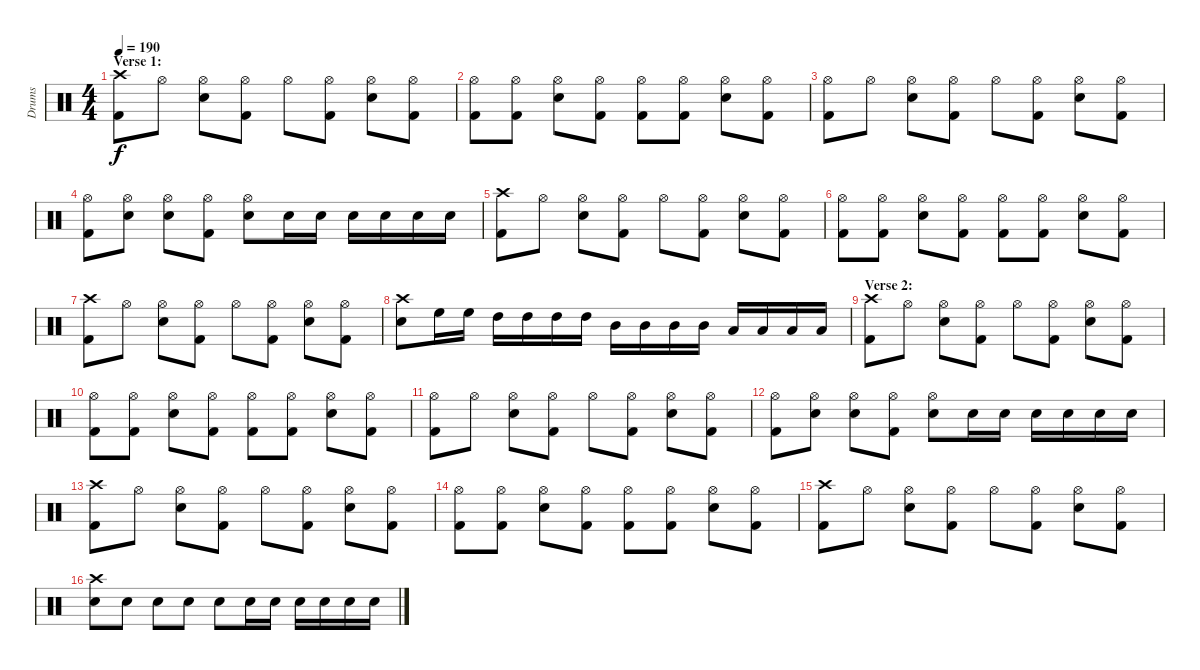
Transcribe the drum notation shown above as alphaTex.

\track ("Drums" "Drums") {instrument percussion}
\staff {score}
\articulation defaults
\ts (4 4)
\section ("" "Verse 1:")
\tempo 190
\clef neutral
\ks c
("Crash high (hit)" "Kick (hit) 2").8{dy f} "Hi-Hat (open)".8 ("Hi-Hat (open)" "Electric Snare (hit)").8 ("Hi-Hat (open)" "Kick (hit) 2").8 "Hi-Hat (open)".8 ("Hi-Hat (open)" "Kick (hit) 2").8 ("Hi-Hat (open)" "Electric Snare (hit)").8 ("Hi-Hat (open)" "Kick (hit) 2").8 |
("Hi-Hat (open)" "Kick (hit) 2").8 ("Hi-Hat (open)" "Kick (hit) 2").8 ("Hi-Hat (open)" "Electric Snare (hit)").8 ("Hi-Hat (open)" "Kick (hit) 2").8 ("Hi-Hat (open)" "Kick (hit) 2").8 ("Hi-Hat (open)" "Kick (hit) 2").8 ("Hi-Hat (open)" "Electric Snare (hit)").8 ("Hi-Hat (open)" "Kick (hit) 2").8 |
("Hi-Hat (open)" "Kick (hit) 2").8 "Hi-Hat (open)".8 ("Hi-Hat (open)" "Electric Snare (hit)").8 ("Hi-Hat (open)" "Kick (hit) 2").8 "Hi-Hat (open)".8 ("Hi-Hat (open)" "Kick (hit) 2").8 ("Hi-Hat (open)" "Electric Snare (hit)").8 ("Hi-Hat (open)" "Kick (hit) 2").8 |
("Hi-Hat (open)" "Kick (hit) 2").8 ("Hi-Hat (open)" "Electric Snare (hit)").8 ("Hi-Hat (open)" "Electric Snare (hit)").8 ("Hi-Hat (open)" "Kick (hit) 2").8 ("Hi-Hat (open)" "Electric Snare (hit)").8 "Electric Snare (hit)".16 "Electric Snare (hit)".16 "Electric Snare (hit)".16 "Electric Snare (hit)".16 "Electric Snare (hit)".16 "Electric Snare (hit)".16 |
("Crash high (hit)" "Kick (hit) 2").8 "Hi-Hat (open)".8 ("Hi-Hat (open)" "Electric Snare (hit)").8 ("Hi-Hat (open)" "Kick (hit) 2").8 "Hi-Hat (open)".8 ("Hi-Hat (open)" "Kick (hit) 2").8 ("Hi-Hat (open)" "Electric Snare (hit)").8 ("Hi-Hat (open)" "Kick (hit) 2").8 |
("Hi-Hat (open)" "Kick (hit) 2").8 ("Hi-Hat (open)" "Kick (hit) 2").8 ("Hi-Hat (open)" "Electric Snare (hit)").8 ("Hi-Hat (open)" "Kick (hit) 2").8 ("Hi-Hat (open)" "Kick (hit) 2").8 ("Hi-Hat (open)" "Kick (hit) 2").8 ("Hi-Hat (open)" "Electric Snare (hit)").8 ("Hi-Hat (open)" "Kick (hit) 2").8 |
("Crash high (hit)" "Kick (hit) 2").8 "Hi-Hat (open)".8 ("Hi-Hat (open)" "Electric Snare (hit)").8 ("Hi-Hat (open)" "Kick (hit) 2").8 "Hi-Hat (open)".8 ("Hi-Hat (open)" "Kick (hit) 2").8 ("Hi-Hat (open)" "Electric Snare (hit)").8 ("Hi-Hat (open)" "Kick (hit) 2").8 |
("Crash high (hit)" "Electric Snare (hit)").8 "High Floor Tom (hit)".16 "High Floor Tom (hit)".16 "High Tom (hit)".16 "High Tom (hit)".16 "High Tom (hit)".16 "High Tom (hit)".16 "Mid Tom (hit)".16 "Mid Tom (hit)".16 "Mid Tom (hit)".16 "Mid Tom (hit)".16 "Low Tom (hit)".16 "Low Tom (hit)".16 "Low Tom (hit)".16 "Low Tom (hit)".16 |
\section ("" "Verse 2:")
("Crash high (hit)" "Kick (hit) 2").8 "Hi-Hat (open)".8 ("Hi-Hat (open)" "Electric Snare (hit)").8 ("Hi-Hat (open)" "Kick (hit) 2").8 "Hi-Hat (open)".8 ("Hi-Hat (open)" "Kick (hit) 2").8 ("Hi-Hat (open)" "Electric Snare (hit)").8 ("Hi-Hat (open)" "Kick (hit) 2").8 |
("Hi-Hat (open)" "Kick (hit) 2").8 ("Hi-Hat (open)" "Kick (hit) 2").8 ("Hi-Hat (open)" "Electric Snare (hit)").8 ("Hi-Hat (open)" "Kick (hit) 2").8 ("Hi-Hat (open)" "Kick (hit) 2").8 ("Hi-Hat (open)" "Kick (hit) 2").8 ("Hi-Hat (open)" "Electric Snare (hit)").8 ("Hi-Hat (open)" "Kick (hit) 2").8 |
("Hi-Hat (open)" "Kick (hit) 2").8 "Hi-Hat (open)".8 ("Hi-Hat (open)" "Electric Snare (hit)").8 ("Hi-Hat (open)" "Kick (hit) 2").8 "Hi-Hat (open)".8 ("Hi-Hat (open)" "Kick (hit) 2").8 ("Hi-Hat (open)" "Electric Snare (hit)").8 ("Hi-Hat (open)" "Kick (hit) 2").8 |
("Hi-Hat (open)" "Kick (hit) 2").8 ("Hi-Hat (open)" "Electric Snare (hit)").8 ("Hi-Hat (open)" "Electric Snare (hit)").8 ("Hi-Hat (open)" "Kick (hit) 2").8 ("Hi-Hat (open)" "Electric Snare (hit)").8 "Electric Snare (hit)".16 "Electric Snare (hit)".16 "Electric Snare (hit)".16 "Electric Snare (hit)".16 "Electric Snare (hit)".16 "Electric Snare (hit)".16 |
("Crash high (hit)" "Kick (hit) 2").8 "Hi-Hat (open)".8 ("Hi-Hat (open)" "Electric Snare (hit)").8 ("Hi-Hat (open)" "Kick (hit) 2").8 "Hi-Hat (open)".8 ("Hi-Hat (open)" "Kick (hit) 2").8 ("Hi-Hat (open)" "Electric Snare (hit)").8 ("Hi-Hat (open)" "Kick (hit) 2").8 |
("Hi-Hat (open)" "Kick (hit) 2").8 ("Hi-Hat (open)" "Kick (hit) 2").8 ("Hi-Hat (open)" "Electric Snare (hit)").8 ("Hi-Hat (open)" "Kick (hit) 2").8 ("Hi-Hat (open)" "Kick (hit) 2").8 ("Hi-Hat (open)" "Kick (hit) 2").8 ("Hi-Hat (open)" "Electric Snare (hit)").8 ("Hi-Hat (open)" "Kick (hit) 2").8 |
("Crash high (hit)" "Kick (hit) 2").8 "Hi-Hat (open)".8 ("Hi-Hat (open)" "Electric Snare (hit)").8 ("Hi-Hat (open)" "Kick (hit) 2").8 "Hi-Hat (open)".8 ("Hi-Hat (open)" "Kick (hit) 2").8 ("Hi-Hat (open)" "Electric Snare (hit)").8 ("Hi-Hat (open)" "Kick (hit) 2").8 |
("Crash high (hit)" "Electric Snare (hit)").8 "Electric Snare (hit)".8 "Electric Snare (hit)".8 "Electric Snare (hit)".8 "Electric Snare (hit)".8 "Electric Snare (hit)".16 "Electric Snare (hit)".16 "Electric Snare (hit)".16 "Electric Snare (hit)".16 "Electric Snare (hit)".16 "Electric Snare (hit)".16
